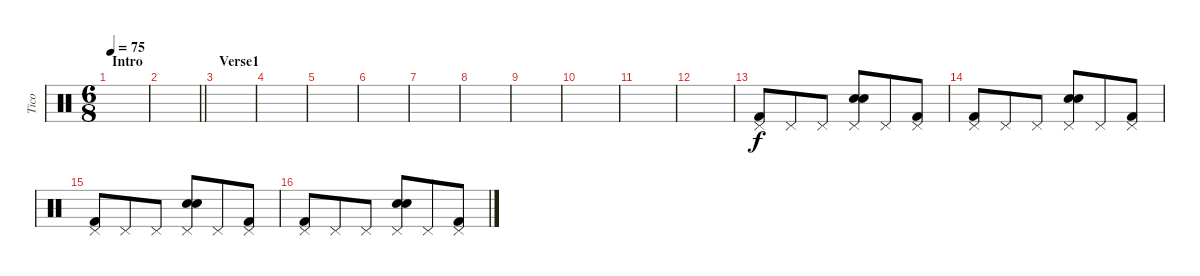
\track ("Tico" "Tico") {instrument percussion}
\staff {score}
\articulation defaults
\ts (6 8)
\section ("" "Intro")
\tempo 75
\clef neutral
\ks c
|
\barLineRight lightlight
|
\section ("" "Verse1")
|
|
|
|
|
|
|
|
|
|
("Kick (hit) 2" "Pedal Hi-Hat (hit)").8 "Pedal Hi-Hat (hit)".8 "Pedal Hi-Hat (hit)".8 ("Electric Snare (hit)" "Snare (hit) 2" "Pedal Hi-Hat (hit)").8 "Pedal Hi-Hat (hit)".8 ("Kick (hit) 2" "Pedal Hi-Hat (hit)").8 |
("Kick (hit) 2" "Pedal Hi-Hat (hit)").8 "Pedal Hi-Hat (hit)".8 "Pedal Hi-Hat (hit)".8 ("Electric Snare (hit)" "Snare (hit) 2" "Pedal Hi-Hat (hit)").8 "Pedal Hi-Hat (hit)".8 ("Kick (hit) 2" "Pedal Hi-Hat (hit)").8 |
("Kick (hit) 2" "Pedal Hi-Hat (hit)").8 "Pedal Hi-Hat (hit)".8 "Pedal Hi-Hat (hit)".8 ("Electric Snare (hit)" "Snare (hit) 2" "Pedal Hi-Hat (hit)").8 "Pedal Hi-Hat (hit)".8 ("Kick (hit) 2" "Pedal Hi-Hat (hit)").8 |
("Kick (hit) 2" "Pedal Hi-Hat (hit)").8 "Pedal Hi-Hat (hit)".8 "Pedal Hi-Hat (hit)".8 ("Electric Snare (hit)" "Snare (hit) 2" "Pedal Hi-Hat (hit)").8 "Pedal Hi-Hat (hit)".8 ("Kick (hit) 2" "Pedal Hi-Hat (hit)").8
